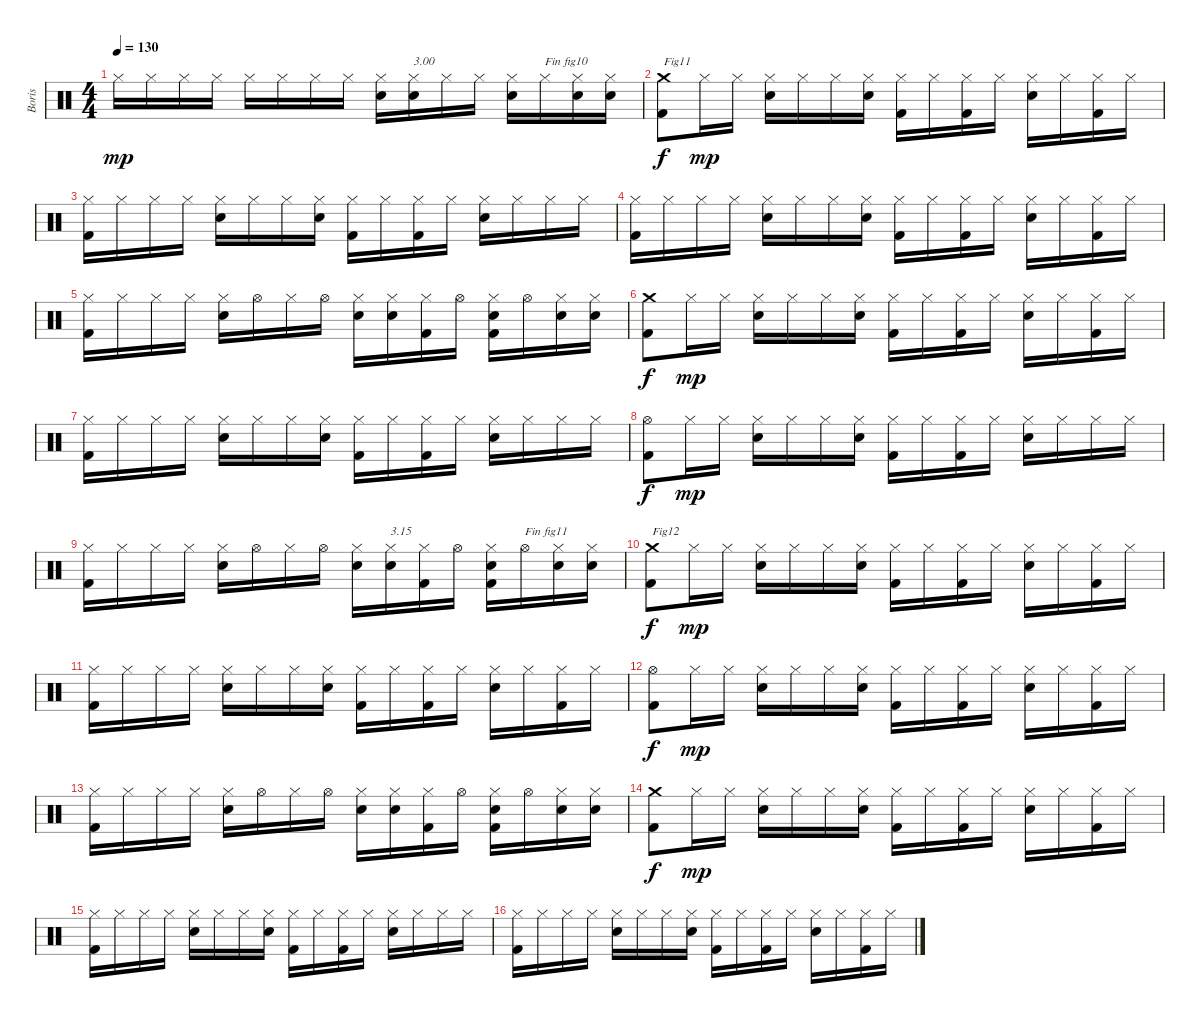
\track ("Boris" "Boris") {instrument percussion}
\staff {score}
\articulation defaults
\ts (4 4)
\tempo 130
\clef neutral
\ks c "Hi-Hat (closed)".16{dy mp} "Hi-Hat (closed)".16 "Hi-Hat (closed)".16 "Hi-Hat (closed)".16 "Hi-Hat (closed)".16 "Hi-Hat (closed)".16 "Hi-Hat (closed)".16 "Hi-Hat (closed)".16
("Electric Snare (hit)" "Hi-Hat (closed)").16 ("Electric Snare (hit)" "Hi-Hat (closed)").16{txt "3.00"} "Hi-Hat (closed)".16 "Hi-Hat (closed)".16 ("Electric Snare (hit)" "Hi-Hat (closed)").16 "Hi-Hat (closed)".16{txt "Fin fig10"} ("Electric Snare (hit)" "Hi-Hat (closed)").16 ("Electric Snare (hit)" "Hi-Hat (closed)").16 |
("Kick (hit) 2" "Crash medium (hit)").8{txt "Fig11" dy f} "Hi-Hat (closed)".16{dy mp} "Hi-Hat (closed)".16 ("Electric Snare (hit)" "Hi-Hat (closed)").16 "Hi-Hat (closed)".16 "Hi-Hat (closed)".16 ("Electric Snare (hit)" "Hi-Hat (closed)").16 ("Kick (hit) 2" "Hi-Hat (closed)").16 "Hi-Hat (closed)".16 ("Kick (hit) 2" "Hi-Hat (closed)").16 "Hi-Hat (closed)".16 ("Electric Snare (hit)" "Hi-Hat (closed)").16 "Hi-Hat (closed)".16 ("Kick (hit) 2" "Hi-Hat (closed)").16 "Hi-Hat (closed)".16 |
("Kick (hit) 2" "Hi-Hat (closed)").16 "Hi-Hat (closed)".16 "Hi-Hat (closed)".16 "Hi-Hat (closed)".16 ("Electric Snare (hit)" "Hi-Hat (closed)").16 "Hi-Hat (closed)".16 "Hi-Hat (closed)".16 ("Electric Snare (hit)" "Hi-Hat (closed)").16 ("Kick (hit) 2" "Hi-Hat (closed)").16 "Hi-Hat (closed)".16 ("Kick (hit) 2" "Hi-Hat (closed)").16 "Hi-Hat (closed)".16 ("Electric Snare (hit)" "Hi-Hat (closed)").16 "Hi-Hat (closed)".16 "Hi-Hat (closed)".16 "Hi-Hat (closed)".16 |
("Kick (hit) 2" "Hi-Hat (closed)").16 "Hi-Hat (closed)".16 "Hi-Hat (closed)".16 "Hi-Hat (closed)".16 ("Electric Snare (hit)" "Hi-Hat (closed)").16 "Hi-Hat (closed)".16 "Hi-Hat (closed)".16 ("Electric Snare (hit)" "Hi-Hat (closed)").16 ("Kick (hit) 2" "Hi-Hat (closed)").16 "Hi-Hat (closed)".16 ("Kick (hit) 2" "Hi-Hat (closed)").16 "Hi-Hat (closed)".16 ("Electric Snare (hit)" "Hi-Hat (closed)").16 "Hi-Hat (closed)".16 ("Kick (hit) 2" "Hi-Hat (closed)").16 "Hi-Hat (closed)".16 |
("Kick (hit) 2" "Hi-Hat (closed)").16 "Hi-Hat (closed)".16 "Hi-Hat (closed)".16 "Hi-Hat (closed)".16 ("Electric Snare (hit)" "Hi-Hat (closed)").16 "Hi-Hat (open)".16 "Hi-Hat (closed)".16 "Hi-Hat (open)".16 ("Electric Snare (hit)" "Hi-Hat (closed)").16 ("Electric Snare (hit)" "Hi-Hat (closed)").16 ("Kick (hit) 2" "Hi-Hat (closed)").16 "Hi-Hat (open)".16 ("Kick (hit) 2" "Electric Snare (hit)" "Hi-Hat (closed)").16 "Hi-Hat (open)".16 ("Electric Snare (hit)" "Hi-Hat (closed)").16 ("Electric Snare (hit)" "Hi-Hat (closed)").16 |
("Kick (hit) 2" "Crash medium (hit)").8{dy f} "Hi-Hat (closed)".16{dy mp} "Hi-Hat (closed)".16 ("Electric Snare (hit)" "Hi-Hat (closed)").16 "Hi-Hat (closed)".16 "Hi-Hat (closed)".16 ("Electric Snare (hit)" "Hi-Hat (closed)").16 ("Kick (hit) 2" "Hi-Hat (closed)").16 "Hi-Hat (closed)".16 ("Kick (hit) 2" "Hi-Hat (closed)").16 "Hi-Hat (closed)".16 ("Electric Snare (hit)" "Hi-Hat (closed)").16 "Hi-Hat (closed)".16 ("Kick (hit) 2" "Hi-Hat (closed)").16 "Hi-Hat (closed)".16 |
("Kick (hit) 2" "Hi-Hat (closed)").16 "Hi-Hat (closed)".16 "Hi-Hat (closed)".16 "Hi-Hat (closed)".16 ("Electric Snare (hit)" "Hi-Hat (closed)").16 "Hi-Hat (closed)".16 "Hi-Hat (closed)".16 ("Electric Snare (hit)" "Hi-Hat (closed)").16 ("Kick (hit) 2" "Hi-Hat (closed)").16 "Hi-Hat (closed)".16 ("Kick (hit) 2" "Hi-Hat (closed)").16 "Hi-Hat (closed)".16 ("Electric Snare (hit)" "Hi-Hat (closed)").16 "Hi-Hat (closed)".16 "Hi-Hat (closed)".16 "Hi-Hat (closed)".16 |
("Kick (hit) 2" "Hi-Hat (open)").8{dy f} "Hi-Hat (closed)".16{dy mp} "Hi-Hat (closed)".16 ("Electric Snare (hit)" "Hi-Hat (closed)").16 "Hi-Hat (closed)".16 "Hi-Hat (closed)".16 ("Electric Snare (hit)" "Hi-Hat (closed)").16 ("Kick (hit) 2" "Hi-Hat (closed)").16 "Hi-Hat (closed)".16 ("Kick (hit) 2" "Hi-Hat (closed)").16 "Hi-Hat (closed)".16 ("Electric Snare (hit)" "Hi-Hat (closed)").16 "Hi-Hat (closed)".16 "Hi-Hat (closed)".16 "Hi-Hat (closed)".16 |
("Kick (hit) 2" "Hi-Hat (closed)").16 "Hi-Hat (closed)".16 "Hi-Hat (closed)".16 "Hi-Hat (closed)".16 ("Electric Snare (hit)" "Hi-Hat (closed)").16 "Hi-Hat (open)".16 "Hi-Hat (closed)".16 "Hi-Hat (open)".16 ("Electric Snare (hit)" "Hi-Hat (closed)").16 ("Electric Snare (hit)" "Hi-Hat (closed)").16{txt "3.15"} ("Kick (hit) 2" "Hi-Hat (closed)").16 "Hi-Hat (open)".16 ("Kick (hit) 2" "Electric Snare (hit)" "Hi-Hat (closed)").16 "Hi-Hat (open)".16{txt "Fin fig11"} ("Electric Snare (hit)" "Hi-Hat (closed)").16 ("Electric Snare (hit)" "Hi-Hat (closed)").16 |
("Kick (hit) 2" "Crash medium (hit)").8{txt "Fig12" dy f} "Hi-Hat (closed)".16{dy mp} "Hi-Hat (closed)".16 ("Electric Snare (hit)" "Hi-Hat (closed)").16 "Hi-Hat (closed)".16 "Hi-Hat (closed)".16 ("Electric Snare (hit)" "Hi-Hat (closed)").16 ("Kick (hit) 2" "Hi-Hat (closed)").16 "Hi-Hat (closed)".16 ("Kick (hit) 2" "Hi-Hat (closed)").16 "Hi-Hat (closed)".16 ("Electric Snare (hit)" "Hi-Hat (closed)").16 "Hi-Hat (closed)".16 ("Kick (hit) 2" "Hi-Hat (closed)").16 "Hi-Hat (closed)".16 |
("Kick (hit) 2" "Hi-Hat (closed)").16 "Hi-Hat (closed)".16 "Hi-Hat (closed)".16 "Hi-Hat (closed)".16 ("Electric Snare (hit)" "Hi-Hat (closed)").16 "Hi-Hat (closed)".16 "Hi-Hat (closed)".16 ("Electric Snare (hit)" "Hi-Hat (closed)").16 ("Kick (hit) 2" "Hi-Hat (closed)").16 "Hi-Hat (closed)".16 ("Kick (hit) 2" "Hi-Hat (closed)").16 "Hi-Hat (closed)".16 ("Electric Snare (hit)" "Hi-Hat (closed)").16 "Hi-Hat (closed)".16 ("Kick (hit) 2" "Hi-Hat (closed)").16 "Hi-Hat (closed)".16 |
("Kick (hit) 2" "Hi-Hat (open)").8{dy f} "Hi-Hat (closed)".16{dy mp} "Hi-Hat (closed)".16 ("Electric Snare (hit)" "Hi-Hat (closed)").16 "Hi-Hat (closed)".16 "Hi-Hat (closed)".16 ("Electric Snare (hit)" "Hi-Hat (closed)").16 ("Kick (hit) 2" "Hi-Hat (closed)").16 "Hi-Hat (closed)".16 ("Kick (hit) 2" "Hi-Hat (closed)").16 "Hi-Hat (closed)".16 ("Electric Snare (hit)" "Hi-Hat (closed)").16 "Hi-Hat (closed)".16 ("Kick (hit) 2" "Hi-Hat (closed)").16 "Hi-Hat (closed)".16 |
("Kick (hit) 2" "Hi-Hat (closed)").16 "Hi-Hat (closed)".16 "Hi-Hat (closed)".16 "Hi-Hat (closed)".16 ("Electric Snare (hit)" "Hi-Hat (closed)").16 "Hi-Hat (open)".16 "Hi-Hat (closed)".16 "Hi-Hat (open)".16 ("Electric Snare (hit)" "Hi-Hat (closed)").16 ("Electric Snare (hit)" "Hi-Hat (closed)").16 ("Kick (hit) 2" "Hi-Hat (closed)").16 "Hi-Hat (open)".16 ("Kick (hit) 2" "Electric Snare (hit)" "Hi-Hat (closed)").16 "Hi-Hat (open)".16 ("Electric Snare (hit)" "Hi-Hat (closed)").16 ("Electric Snare (hit)" "Hi-Hat (closed)").16 |
("Kick (hit) 2" "Crash medium (hit)").8{dy f} "Hi-Hat (closed)".16{dy mp} "Hi-Hat (closed)".16 ("Electric Snare (hit)" "Hi-Hat (closed)").16 "Hi-Hat (closed)".16 "Hi-Hat (closed)".16 ("Electric Snare (hit)" "Hi-Hat (closed)").16 ("Kick (hit) 2" "Hi-Hat (closed)").16 "Hi-Hat (closed)".16 ("Kick (hit) 2" "Hi-Hat (closed)").16 "Hi-Hat (closed)".16 ("Electric Snare (hit)" "Hi-Hat (closed)").16 "Hi-Hat (closed)".16 ("Kick (hit) 2" "Hi-Hat (closed)").16 "Hi-Hat (closed)".16 |
("Kick (hit) 2" "Hi-Hat (closed)").16 "Hi-Hat (closed)".16 "Hi-Hat (closed)".16 "Hi-Hat (closed)".16 ("Electric Snare (hit)" "Hi-Hat (closed)").16 "Hi-Hat (closed)".16 "Hi-Hat (closed)".16 ("Electric Snare (hit)" "Hi-Hat (closed)").16 ("Kick (hit) 2" "Hi-Hat (closed)").16 "Hi-Hat (closed)".16 ("Kick (hit) 2" "Hi-Hat (closed)").16 "Hi-Hat (closed)".16 ("Electric Snare (hit)" "Hi-Hat (closed)").16 "Hi-Hat (closed)".16 "Hi-Hat (closed)".16 "Hi-Hat (closed)".16 |
("Kick (hit) 2" "Hi-Hat (closed)").16 "Hi-Hat (closed)".16 "Hi-Hat (closed)".16 "Hi-Hat (closed)".16 ("Electric Snare (hit)" "Hi-Hat (closed)").16 "Hi-Hat (closed)".16 "Hi-Hat (closed)".16 ("Electric Snare (hit)" "Hi-Hat (closed)").16 ("Kick (hit) 2" "Hi-Hat (closed)").16 "Hi-Hat (closed)".16 ("Kick (hit) 2" "Hi-Hat (closed)").16 "Hi-Hat (closed)".16 ("Electric Snare (hit)" "Hi-Hat (closed)").16 "Hi-Hat (closed)".16 ("Kick (hit) 2" "Hi-Hat (closed)").16 "Hi-Hat (closed)".16
